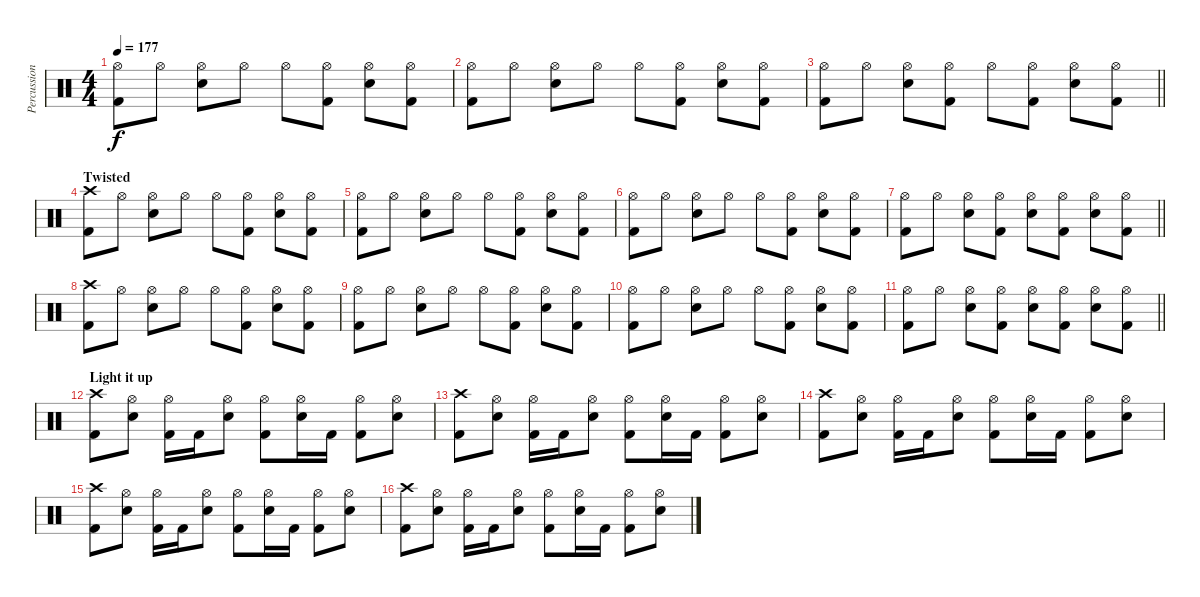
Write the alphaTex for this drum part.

\track ("Percussion" "Percussion") {instrument percussion}
\staff {score}
\articulation defaults
\ts (4 4)
\tempo 177
\clef neutral
\ks c
("Hi-Hat (open)" "Kick (hit) 2").8{dy f} "Hi-Hat (open)".8 ("Hi-Hat (open)" "Snare (hit) 2").8 "Hi-Hat (open)".8 "Hi-Hat (open)".8 ("Hi-Hat (open)" "Kick (hit) 2").8 ("Hi-Hat (open)" "Snare (hit) 2").8 ("Hi-Hat (open)" "Kick (hit) 2").8 |
("Hi-Hat (open)" "Kick (hit) 2").8 "Hi-Hat (open)".8 ("Hi-Hat (open)" "Snare (hit) 2").8 "Hi-Hat (open)".8 "Hi-Hat (open)".8 ("Hi-Hat (open)" "Kick (hit) 2").8 ("Hi-Hat (open)" "Snare (hit) 2").8 ("Hi-Hat (open)" "Kick (hit) 2").8 |
\barLineRight lightlight
("Hi-Hat (open)" "Kick (hit) 2").8 "Hi-Hat (open)".8 ("Hi-Hat (open)" "Snare (hit) 2").8 ("Hi-Hat (open)" "Kick (hit) 2").8 "Hi-Hat (open)".8 ("Hi-Hat (open)" "Kick (hit) 2").8 ("Hi-Hat (open)" "Snare (hit) 2").8 ("Hi-Hat (open)" "Kick (hit) 2").8 |
\section ("" "Twisted")
("Crash high (hit)" "Kick (hit) 2").8 "Hi-Hat (open)".8 ("Hi-Hat (open)" "Snare (hit) 2").8 "Hi-Hat (open)".8 "Hi-Hat (open)".8 ("Hi-Hat (open)" "Kick (hit) 2").8 ("Hi-Hat (open)" "Snare (hit) 2").8 ("Hi-Hat (open)" "Kick (hit) 2").8 |
("Hi-Hat (open)" "Kick (hit) 2").8 "Hi-Hat (open)".8 ("Hi-Hat (open)" "Snare (hit) 2").8 "Hi-Hat (open)".8 "Hi-Hat (open)".8 ("Hi-Hat (open)" "Kick (hit) 2").8 ("Hi-Hat (open)" "Snare (hit) 2").8 ("Hi-Hat (open)" "Kick (hit) 2").8 |
("Hi-Hat (open)" "Kick (hit) 2").8 "Hi-Hat (open)".8 ("Hi-Hat (open)" "Snare (hit) 2").8 "Hi-Hat (open)".8 "Hi-Hat (open)".8 ("Hi-Hat (open)" "Kick (hit) 2").8 ("Hi-Hat (open)" "Snare (hit) 2").8 ("Hi-Hat (open)" "Kick (hit) 2").8 |
\barLineRight lightlight
("Hi-Hat (open)" "Kick (hit) 2").8 "Hi-Hat (open)".8 ("Hi-Hat (open)" "Snare (hit) 2").8 ("Hi-Hat (open)" "Kick (hit) 2").8 ("Hi-Hat (open)" "Snare (hit) 2").8 ("Hi-Hat (open)" "Kick (hit) 2").8 ("Hi-Hat (open)" "Snare (hit) 2").8 ("Hi-Hat (open)" "Kick (hit) 2").8 |
("Crash high (hit)" "Kick (hit) 2").8 "Hi-Hat (open)".8 ("Hi-Hat (open)" "Snare (hit) 2").8 "Hi-Hat (open)".8 "Hi-Hat (open)".8 ("Hi-Hat (open)" "Kick (hit) 2").8 ("Hi-Hat (open)" "Snare (hit) 2").8 ("Hi-Hat (open)" "Kick (hit) 2").8 |
("Hi-Hat (open)" "Kick (hit) 2").8 "Hi-Hat (open)".8 ("Hi-Hat (open)" "Snare (hit) 2").8 "Hi-Hat (open)".8 "Hi-Hat (open)".8 ("Hi-Hat (open)" "Kick (hit) 2").8 ("Hi-Hat (open)" "Snare (hit) 2").8 ("Hi-Hat (open)" "Kick (hit) 2").8 |
("Hi-Hat (open)" "Kick (hit) 2").8 "Hi-Hat (open)".8 ("Hi-Hat (open)" "Snare (hit) 2").8 "Hi-Hat (open)".8 "Hi-Hat (open)".8 ("Hi-Hat (open)" "Kick (hit) 2").8 ("Hi-Hat (open)" "Snare (hit) 2").8 ("Hi-Hat (open)" "Kick (hit) 2").8 |
\barLineRight lightlight
("Hi-Hat (open)" "Kick (hit) 2").8 "Hi-Hat (open)".8 ("Hi-Hat (open)" "Snare (hit) 2").8 ("Hi-Hat (open)" "Kick (hit) 2").8 ("Hi-Hat (open)" "Snare (hit) 2").8 ("Hi-Hat (open)" "Kick (hit) 2").8 ("Hi-Hat (open)" "Snare (hit) 2").8 ("Hi-Hat (open)" "Kick (hit) 2").8 |
\section ("" "Light it up")
("Crash high (hit)" "Kick (hit) 2").8 ("Hi-Hat (open)" "Snare (hit) 2").8 ("Hi-Hat (open)" "Kick (hit) 2").16 "Kick (hit) 2".16 ("Hi-Hat (open)" "Snare (hit) 2").8 ("Hi-Hat (open)" "Kick (hit) 2").8 ("Hi-Hat (open)" "Snare (hit) 2").16 "Kick (hit) 2".16 ("Hi-Hat (open)" "Kick (hit) 2").8 ("Hi-Hat (open)" "Snare (hit) 2").8 |
("Crash high (hit)" "Kick (hit) 2").8 ("Hi-Hat (open)" "Snare (hit) 2").8 ("Hi-Hat (open)" "Kick (hit) 2").16 "Kick (hit) 2".16 ("Hi-Hat (open)" "Snare (hit) 2").8 ("Hi-Hat (open)" "Kick (hit) 2").8 ("Hi-Hat (open)" "Snare (hit) 2").16 "Kick (hit) 2".16 ("Hi-Hat (open)" "Kick (hit) 2").8 ("Hi-Hat (open)" "Snare (hit) 2").8 |
("Crash high (hit)" "Kick (hit) 2").8 ("Hi-Hat (open)" "Snare (hit) 2").8 ("Hi-Hat (open)" "Kick (hit) 2").16 "Kick (hit) 2".16 ("Hi-Hat (open)" "Snare (hit) 2").8 ("Hi-Hat (open)" "Kick (hit) 2").8 ("Hi-Hat (open)" "Snare (hit) 2").16 "Kick (hit) 2".16 ("Hi-Hat (open)" "Kick (hit) 2").8 ("Hi-Hat (open)" "Snare (hit) 2").8 |
("Crash high (hit)" "Kick (hit) 2").8 ("Hi-Hat (open)" "Snare (hit) 2").8 ("Hi-Hat (open)" "Kick (hit) 2").16 "Kick (hit) 2".16 ("Hi-Hat (open)" "Snare (hit) 2").8 ("Hi-Hat (open)" "Kick (hit) 2").8 ("Hi-Hat (open)" "Snare (hit) 2").16 "Kick (hit) 2".16 ("Hi-Hat (open)" "Kick (hit) 2").8 ("Hi-Hat (open)" "Snare (hit) 2").8 |
("Crash high (hit)" "Kick (hit) 2").8 ("Hi-Hat (open)" "Snare (hit) 2").8 ("Hi-Hat (open)" "Kick (hit) 2").16 "Kick (hit) 2".16 ("Hi-Hat (open)" "Snare (hit) 2").8 ("Hi-Hat (open)" "Kick (hit) 2").8 ("Hi-Hat (open)" "Snare (hit) 2").16 "Kick (hit) 2".16 ("Hi-Hat (open)" "Kick (hit) 2").8 ("Hi-Hat (open)" "Snare (hit) 2").8
